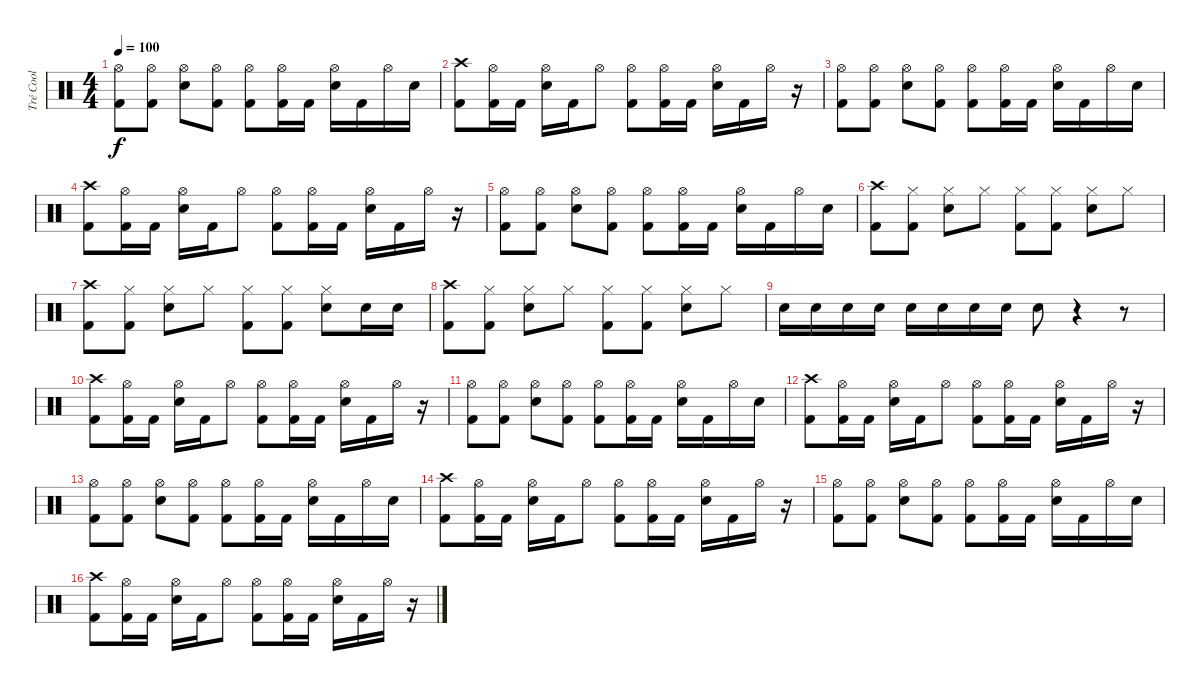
\track ("Tré Cool" "Tré Cool") {instrument percussion}
\staff {score}
\articulation defaults
\ts (4 4)
\tempo 100
\clef neutral
\ks c
("Hi-Hat (open)" "Kick (hit) 2").8{dy f} ("Hi-Hat (open)" "Kick (hit) 2").8 ("Hi-Hat (open)" "Electric Snare (hit)").8 ("Hi-Hat (open)" "Kick (hit) 2").8 ("Hi-Hat (open)" "Kick (hit) 2").8 ("Hi-Hat (open)" "Kick (hit) 2").16 "Kick (hit) 2".16 ("Hi-Hat (open)" "Electric Snare (hit)").16 "Kick (hit) 2".16 "Hi-Hat (open)".16 "Electric Snare (hit)".16 |
("Crash high (hit)" "Kick (hit) 2").8 ("Hi-Hat (open)" "Kick (hit) 2").16 "Kick (hit) 2".16 ("Hi-Hat (open)" "Electric Snare (hit)").16 "Kick (hit) 2".16 "Hi-Hat (open)".8 ("Hi-Hat (open)" "Kick (hit) 2").8 ("Hi-Hat (open)" "Kick (hit) 2").16 "Kick (hit) 2".16 ("Hi-Hat (open)" "Electric Snare (hit)").16 "Kick (hit) 2".16 "Hi-Hat (open)".16 r.16 |
("Hi-Hat (open)" "Kick (hit) 2").8 ("Hi-Hat (open)" "Kick (hit) 2").8 ("Hi-Hat (open)" "Electric Snare (hit)").8 ("Hi-Hat (open)" "Kick (hit) 2").8 ("Hi-Hat (open)" "Kick (hit) 2").8 ("Hi-Hat (open)" "Kick (hit) 2").16 "Kick (hit) 2".16 ("Hi-Hat (open)" "Electric Snare (hit)").16 "Kick (hit) 2".16 "Hi-Hat (open)".16 "Electric Snare (hit)".16 |
("Crash high (hit)" "Kick (hit) 2").8 ("Hi-Hat (open)" "Kick (hit) 2").16 "Kick (hit) 2".16 ("Hi-Hat (open)" "Electric Snare (hit)").16 "Kick (hit) 2".16 "Hi-Hat (open)".8 ("Hi-Hat (open)" "Kick (hit) 2").8 ("Hi-Hat (open)" "Kick (hit) 2").16 "Kick (hit) 2".16 ("Hi-Hat (open)" "Electric Snare (hit)").16 "Kick (hit) 2".16 "Hi-Hat (open)".16 r.16 |
("Hi-Hat (open)" "Kick (hit) 2").8 ("Hi-Hat (open)" "Kick (hit) 2").8 ("Hi-Hat (open)" "Electric Snare (hit)").8 ("Hi-Hat (open)" "Kick (hit) 2").8 ("Hi-Hat (open)" "Kick (hit) 2").8 ("Hi-Hat (open)" "Kick (hit) 2").16 "Kick (hit) 2".16 ("Hi-Hat (open)" "Electric Snare (hit)").16 "Kick (hit) 2".16 "Hi-Hat (open)".16 "Electric Snare (hit)".16 |
("Crash high (hit)" "Kick (hit) 2").8 ("Hi-Hat (closed)" "Kick (hit) 2").8 ("Hi-Hat (closed)" "Electric Snare (hit)").8 "Hi-Hat (closed)".8 ("Hi-Hat (closed)" "Kick (hit) 2").8 ("Hi-Hat (closed)" "Kick (hit) 2").8 ("Hi-Hat (closed)" "Electric Snare (hit)").8 "Hi-Hat (closed)".8 |
("Crash high (hit)" "Kick (hit) 2").8 ("Hi-Hat (closed)" "Kick (hit) 2").8 ("Hi-Hat (closed)" "Electric Snare (hit)").8 "Hi-Hat (closed)".8 ("Hi-Hat (closed)" "Kick (hit) 2").8 ("Hi-Hat (closed)" "Kick (hit) 2").8 ("Hi-Hat (closed)" "Electric Snare (hit)").8 "Electric Snare (hit)".16 "Electric Snare (hit)".16 |
("Crash high (hit)" "Kick (hit) 2").8 ("Hi-Hat (closed)" "Kick (hit) 2").8 ("Hi-Hat (closed)" "Electric Snare (hit)").8 "Hi-Hat (closed)".8 ("Hi-Hat (closed)" "Kick (hit) 2").8 ("Hi-Hat (closed)" "Kick (hit) 2").8 ("Hi-Hat (closed)" "Electric Snare (hit)").8 "Hi-Hat (closed)".8 |
"Electric Snare (hit)".16 "Electric Snare (hit)".16 "Electric Snare (hit)".16 "Electric Snare (hit)".16 "Electric Snare (hit)".16 "Electric Snare (hit)".16 "Electric Snare (hit)".16 "Electric Snare (hit)".16 "Electric Snare (hit)".8 r.4 r.8 |
("Crash high (hit)" "Kick (hit) 2").8 ("Hi-Hat (open)" "Kick (hit) 2").16 "Kick (hit) 2".16 ("Hi-Hat (open)" "Electric Snare (hit)").16 "Kick (hit) 2".16 "Hi-Hat (open)".8 ("Hi-Hat (open)" "Kick (hit) 2").8 ("Hi-Hat (open)" "Kick (hit) 2").16 "Kick (hit) 2".16 ("Hi-Hat (open)" "Electric Snare (hit)").16 "Kick (hit) 2".16 "Hi-Hat (open)".16 r.16 |
("Hi-Hat (open)" "Kick (hit) 2").8 ("Hi-Hat (open)" "Kick (hit) 2").8 ("Hi-Hat (open)" "Electric Snare (hit)").8 ("Hi-Hat (open)" "Kick (hit) 2").8 ("Hi-Hat (open)" "Kick (hit) 2").8 ("Hi-Hat (open)" "Kick (hit) 2").16 "Kick (hit) 2".16 ("Hi-Hat (open)" "Electric Snare (hit)").16 "Kick (hit) 2".16 "Hi-Hat (open)".16 "Electric Snare (hit)".16 |
("Crash high (hit)" "Kick (hit) 2").8 ("Hi-Hat (open)" "Kick (hit) 2").16 "Kick (hit) 2".16 ("Hi-Hat (open)" "Electric Snare (hit)").16 "Kick (hit) 2".16 "Hi-Hat (open)".8 ("Hi-Hat (open)" "Kick (hit) 2").8 ("Hi-Hat (open)" "Kick (hit) 2").16 "Kick (hit) 2".16 ("Hi-Hat (open)" "Electric Snare (hit)").16 "Kick (hit) 2".16 "Hi-Hat (open)".16 r.16 |
("Hi-Hat (open)" "Kick (hit) 2").8 ("Hi-Hat (open)" "Kick (hit) 2").8 ("Hi-Hat (open)" "Electric Snare (hit)").8 ("Hi-Hat (open)" "Kick (hit) 2").8 ("Hi-Hat (open)" "Kick (hit) 2").8 ("Hi-Hat (open)" "Kick (hit) 2").16 "Kick (hit) 2".16 ("Hi-Hat (open)" "Electric Snare (hit)").16 "Kick (hit) 2".16 "Hi-Hat (open)".16 "Electric Snare (hit)".16 |
("Crash high (hit)" "Kick (hit) 2").8 ("Hi-Hat (open)" "Kick (hit) 2").16 "Kick (hit) 2".16 ("Hi-Hat (open)" "Electric Snare (hit)").16 "Kick (hit) 2".16 "Hi-Hat (open)".8 ("Hi-Hat (open)" "Kick (hit) 2").8 ("Hi-Hat (open)" "Kick (hit) 2").16 "Kick (hit) 2".16 ("Hi-Hat (open)" "Electric Snare (hit)").16 "Kick (hit) 2".16 "Hi-Hat (open)".16 r.16 |
("Hi-Hat (open)" "Kick (hit) 2").8 ("Hi-Hat (open)" "Kick (hit) 2").8 ("Hi-Hat (open)" "Electric Snare (hit)").8 ("Hi-Hat (open)" "Kick (hit) 2").8 ("Hi-Hat (open)" "Kick (hit) 2").8 ("Hi-Hat (open)" "Kick (hit) 2").16 "Kick (hit) 2".16 ("Hi-Hat (open)" "Electric Snare (hit)").16 "Kick (hit) 2".16 "Hi-Hat (open)".16 "Electric Snare (hit)".16 |
("Crash high (hit)" "Kick (hit) 2").8 ("Hi-Hat (open)" "Kick (hit) 2").16 "Kick (hit) 2".16 ("Hi-Hat (open)" "Electric Snare (hit)").16 "Kick (hit) 2".16 "Hi-Hat (open)".8 ("Hi-Hat (open)" "Kick (hit) 2").8 ("Hi-Hat (open)" "Kick (hit) 2").16 "Kick (hit) 2".16 ("Hi-Hat (open)" "Electric Snare (hit)").16 "Kick (hit) 2".16 "Hi-Hat (open)".16 r.16
